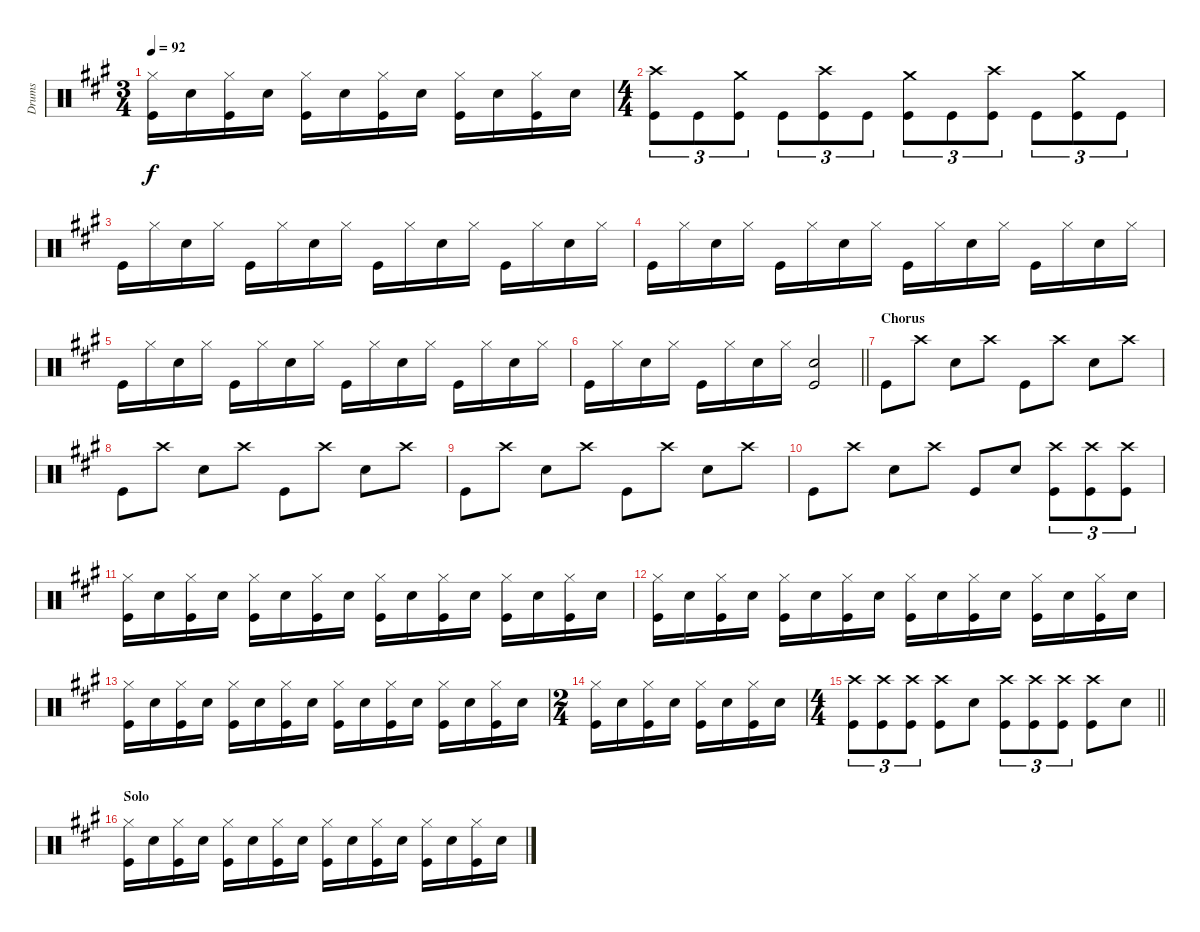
\track ("Drums" "Drums") {instrument percussion}
\staff {score}
\articulation defaults
\ts (3 4)
\tempo 92
\clef neutral
\ks f#minor
("Hi-Hat (closed)" "Kick (hit)").16{dy f} "Snare (hit) 2".16 ("Hi-Hat (closed)" "Kick (hit)").16 "Snare (hit) 2".16 ("Hi-Hat (closed)" "Kick (hit)").16 "Snare (hit) 2".16 ("Hi-Hat (closed)" "Kick (hit)").16 "Snare (hit) 2".16 ("Hi-Hat (closed)" "Kick (hit)").16 "Snare (hit) 2".16 ("Hi-Hat (closed)" "Kick (hit)").16 "Snare (hit) 2".16 |
\ts (4 4)
("Crash high (hit)" "Kick (hit)").8{tu (3 2)} "Kick (hit)".8{tu (3 2)} ("Crash medium (hit)" "Kick (hit)").8{tu (3 2)} "Kick (hit)".8{tu (3 2)} ("Crash high (hit)" "Kick (hit)").8{tu (3 2)} "Kick (hit)".8{tu (3 2)} ("Crash medium (hit)" "Kick (hit)").8{tu (3 2)} "Kick (hit)".8{tu (3 2)} ("Crash high (hit)" "Kick (hit)").8{tu (3 2)} "Kick (hit)".8{tu (3 2)} ("Crash medium (hit)" "Kick (hit)").8{tu (3 2)} "Kick (hit)".8{tu (3 2)} |
"Kick (hit)".16 "Hi-Hat (closed)".16 "Snare (hit) 2".16 "Hi-Hat (closed)".16 "Kick (hit)".16 "Hi-Hat (closed)".16 "Snare (hit) 2".16 "Hi-Hat (closed)".16 "Kick (hit)".16 "Hi-Hat (closed)".16 "Snare (hit) 2".16 "Hi-Hat (closed)".16 "Kick (hit)".16 "Hi-Hat (closed)".16 "Snare (hit) 2".16 "Hi-Hat (closed)".16 |
"Kick (hit)".16 "Hi-Hat (closed)".16 "Snare (hit) 2".16 "Hi-Hat (closed)".16 "Kick (hit)".16 "Hi-Hat (closed)".16 "Snare (hit) 2".16 "Hi-Hat (closed)".16 "Kick (hit)".16 "Hi-Hat (closed)".16 "Snare (hit) 2".16 "Hi-Hat (closed)".16 "Kick (hit)".16 "Hi-Hat (closed)".16 "Snare (hit) 2".16 "Hi-Hat (closed)".16 |
"Kick (hit)".16 "Hi-Hat (closed)".16 "Snare (hit) 2".16 "Hi-Hat (closed)".16 "Kick (hit)".16 "Hi-Hat (closed)".16 "Snare (hit) 2".16 "Hi-Hat (closed)".16 "Kick (hit)".16 "Hi-Hat (closed)".16 "Snare (hit) 2".16 "Hi-Hat (closed)".16 "Kick (hit)".16 "Hi-Hat (closed)".16 "Snare (hit) 2".16 "Hi-Hat (closed)".16 |
\barLineRight lightlight "Kick (hit)".16 "Hi-Hat (closed)".16 "Snare (hit) 2".16 "Hi-Hat (closed)".16 "Kick (hit)".16 "Hi-Hat (closed)".16 "Snare (hit) 2".16 "Hi-Hat (closed)".16
("Snare (hit) 2" "Kick (hit)").2 |
\section ("" "Chorus")
"Kick (hit)".8 "Crash high (hit)".8 "Snare (hit) 2".8 "Crash high (hit)".8 "Kick (hit)".8 "Crash high (hit)".8 "Snare (hit) 2".8 "Crash high (hit)".8 |
"Kick (hit)".8 "Crash high (hit)".8 "Snare (hit) 2".8 "Crash high (hit)".8 "Kick (hit)".8 "Crash high (hit)".8 "Snare (hit) 2".8 "Crash high (hit)".8 |
"Kick (hit)".8 "Crash high (hit)".8 "Snare (hit) 2".8 "Crash high (hit)".8 "Kick (hit)".8 "Crash high (hit)".8 "Snare (hit) 2".8 "Crash high (hit)".8 |
"Kick (hit)".8 "Crash high (hit)".8 "Snare (hit) 2".8 "Crash high (hit)".8 "Kick (hit)".8 "Snare (hit) 2".8 ("Crash high (hit)" "Kick (hit)").8{tu (3 2)} ("Crash high (hit)" "Kick (hit)").8{tu (3 2)} ("Crash high (hit)" "Kick (hit)").8{tu (3 2)} |
("Hi-Hat (closed)" "Kick (hit)").16 "Snare (hit) 2".16 ("Hi-Hat (closed)" "Kick (hit)").16 "Snare (hit) 2".16 ("Hi-Hat (closed)" "Kick (hit)").16 "Snare (hit) 2".16 ("Hi-Hat (closed)" "Kick (hit)").16 "Snare (hit) 2".16 ("Hi-Hat (closed)" "Kick (hit)").16 "Snare (hit) 2".16 ("Hi-Hat (closed)" "Kick (hit)").16 "Snare (hit) 2".16 ("Hi-Hat (closed)" "Kick (hit)").16 "Snare (hit) 2".16 ("Hi-Hat (closed)" "Kick (hit)").16 "Snare (hit) 2".16 |
("Hi-Hat (closed)" "Kick (hit)").16 "Snare (hit) 2".16 ("Hi-Hat (closed)" "Kick (hit)").16 "Snare (hit) 2".16 ("Hi-Hat (closed)" "Kick (hit)").16 "Snare (hit) 2".16 ("Hi-Hat (closed)" "Kick (hit)").16 "Snare (hit) 2".16 ("Hi-Hat (closed)" "Kick (hit)").16 "Snare (hit) 2".16 ("Hi-Hat (closed)" "Kick (hit)").16 "Snare (hit) 2".16 ("Hi-Hat (closed)" "Kick (hit)").16 "Snare (hit) 2".16 ("Hi-Hat (closed)" "Kick (hit)").16 "Snare (hit) 2".16 |
("Hi-Hat (closed)" "Kick (hit)").16 "Snare (hit) 2".16 ("Hi-Hat (closed)" "Kick (hit)").16 "Snare (hit) 2".16 ("Hi-Hat (closed)" "Kick (hit)").16 "Snare (hit) 2".16 ("Hi-Hat (closed)" "Kick (hit)").16 "Snare (hit) 2".16 ("Hi-Hat (closed)" "Kick (hit)").16 "Snare (hit) 2".16 ("Hi-Hat (closed)" "Kick (hit)").16 "Snare (hit) 2".16 ("Hi-Hat (closed)" "Kick (hit)").16 "Snare (hit) 2".16 ("Hi-Hat (closed)" "Kick (hit)").16 "Snare (hit) 2".16 |
\ts (2 4)
("Hi-Hat (closed)" "Kick (hit)").16 "Snare (hit) 2".16 ("Hi-Hat (closed)" "Kick (hit)").16 "Snare (hit) 2".16 ("Hi-Hat (closed)" "Kick (hit)").16 "Snare (hit) 2".16 ("Hi-Hat (closed)" "Kick (hit)").16 "Snare (hit) 2".16 |
\ts (4 4)
\barLineRight lightlight
("Crash high (hit)" "Kick (hit)").8{tu (3 2)} ("Crash high (hit)" "Kick (hit)").8{tu (3 2)} ("Crash high (hit)" "Kick (hit)").8{tu (3 2)} ("Crash high (hit)" "Kick (hit)").8 "Snare (hit) 2".8 ("Crash high (hit)" "Kick (hit)").8{tu (3 2)} ("Crash high (hit)" "Kick (hit)").8{tu (3 2)} ("Crash high (hit)" "Kick (hit)").8{tu (3 2)} ("Crash high (hit)" "Kick (hit)").8 "Snare (hit) 2".8 |
\section ("" "Solo")
("Hi-Hat (closed)" "Kick (hit)").16 "Snare (hit) 2".16 ("Hi-Hat (closed)" "Kick (hit)").16 "Snare (hit) 2".16 ("Hi-Hat (closed)" "Kick (hit)").16 "Snare (hit) 2".16 ("Hi-Hat (closed)" "Kick (hit)").16 "Snare (hit) 2".16 ("Hi-Hat (closed)" "Kick (hit)").16 "Snare (hit) 2".16 ("Hi-Hat (closed)" "Kick (hit)").16 "Snare (hit) 2".16 ("Hi-Hat (closed)" "Kick (hit)").16 "Snare (hit) 2".16 ("Hi-Hat (closed)" "Kick (hit)").16 "Snare (hit) 2".16
